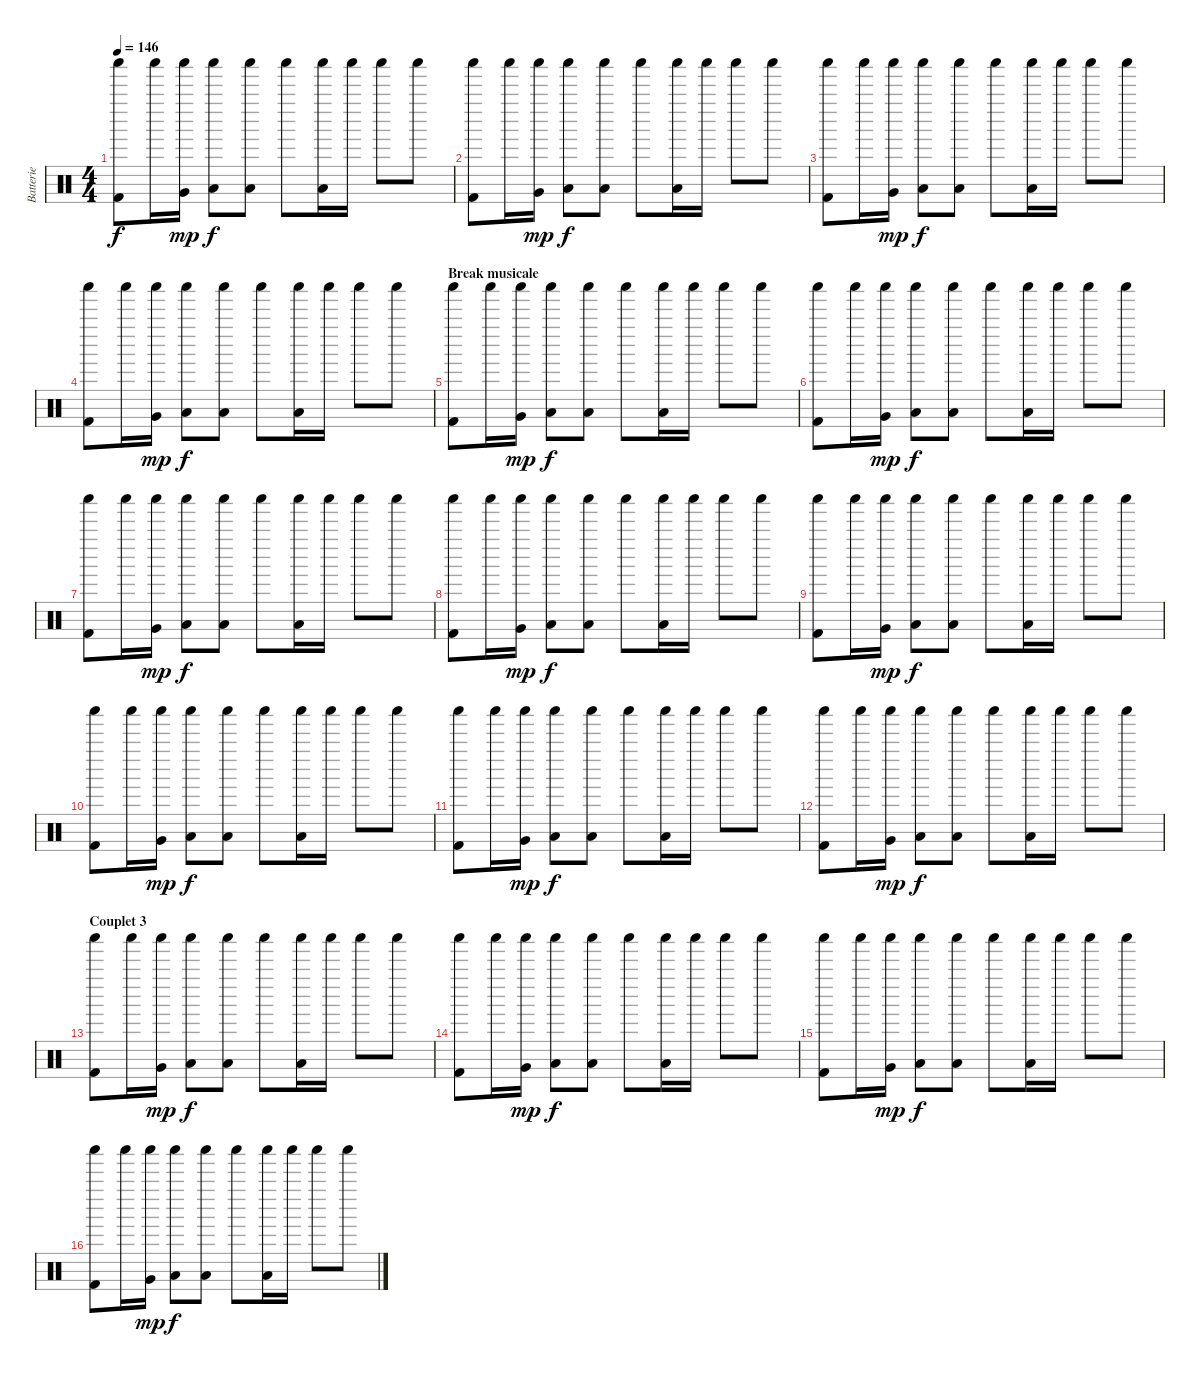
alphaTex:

\track ("Batterie" "Batterie") {instrument percussion}
\staff {score}
\articulation defaults
\ts (4 4)
\tempo 146
\clef neutral
\ks c
("Shaker (hit)" "Kick (hit) 2").8{dy f} "Shaker (hit)".16 ("Shaker (hit)" "Very Low Tom (hit)").16{dy mp} ("Shaker (hit)" "Low Tom (hit)").8{dy f} ("Shaker (hit)" "Low Tom (hit)").8 "Shaker (hit)".8 ("Shaker (hit)" "Low Tom (hit)").16 "Shaker (hit)".16 "Shaker (hit)".8 "Shaker (hit)".8 |
("Shaker (hit)" "Kick (hit) 2").8 "Shaker (hit)".16 ("Shaker (hit)" "Very Low Tom (hit)").16{dy mp} ("Shaker (hit)" "Low Tom (hit)").8{dy f} ("Shaker (hit)" "Low Tom (hit)").8 "Shaker (hit)".8 ("Shaker (hit)" "Low Tom (hit)").16 "Shaker (hit)".16 "Shaker (hit)".8 "Shaker (hit)".8 |
("Shaker (hit)" "Kick (hit) 2").8 "Shaker (hit)".16 ("Shaker (hit)" "Very Low Tom (hit)").16{dy mp} ("Shaker (hit)" "Low Tom (hit)").8{dy f} ("Shaker (hit)" "Low Tom (hit)").8 "Shaker (hit)".8 ("Shaker (hit)" "Low Tom (hit)").16 "Shaker (hit)".16 "Shaker (hit)".8 "Shaker (hit)".8 |
("Shaker (hit)" "Kick (hit) 2").8 "Shaker (hit)".16 ("Shaker (hit)" "Very Low Tom (hit)").16{dy mp} ("Shaker (hit)" "Low Tom (hit)").8{dy f} ("Shaker (hit)" "Low Tom (hit)").8 "Shaker (hit)".8 ("Shaker (hit)" "Low Tom (hit)").16 "Shaker (hit)".16 "Shaker (hit)".8 "Shaker (hit)".8 |
\section ("" "Break musicale")
("Shaker (hit)" "Kick (hit) 2").8 "Shaker (hit)".16 ("Shaker (hit)" "Very Low Tom (hit)").16{dy mp} ("Shaker (hit)" "Low Tom (hit)").8{dy f} ("Shaker (hit)" "Low Tom (hit)").8 "Shaker (hit)".8 ("Shaker (hit)" "Low Tom (hit)").16 "Shaker (hit)".16 "Shaker (hit)".8 "Shaker (hit)".8 |
("Shaker (hit)" "Kick (hit) 2").8 "Shaker (hit)".16 ("Shaker (hit)" "Very Low Tom (hit)").16{dy mp} ("Shaker (hit)" "Low Tom (hit)").8{dy f} ("Shaker (hit)" "Low Tom (hit)").8 "Shaker (hit)".8 ("Shaker (hit)" "Low Tom (hit)").16 "Shaker (hit)".16 "Shaker (hit)".8 "Shaker (hit)".8 |
("Shaker (hit)" "Kick (hit) 2").8 "Shaker (hit)".16 ("Shaker (hit)" "Very Low Tom (hit)").16{dy mp} ("Shaker (hit)" "Low Tom (hit)").8{dy f} ("Shaker (hit)" "Low Tom (hit)").8 "Shaker (hit)".8 ("Shaker (hit)" "Low Tom (hit)").16 "Shaker (hit)".16 "Shaker (hit)".8 "Shaker (hit)".8 |
("Shaker (hit)" "Kick (hit) 2").8 "Shaker (hit)".16 ("Shaker (hit)" "Very Low Tom (hit)").16{dy mp} ("Shaker (hit)" "Low Tom (hit)").8{dy f} ("Shaker (hit)" "Low Tom (hit)").8 "Shaker (hit)".8 ("Shaker (hit)" "Low Tom (hit)").16 "Shaker (hit)".16 "Shaker (hit)".8 "Shaker (hit)".8 |
("Shaker (hit)" "Kick (hit) 2").8 "Shaker (hit)".16 ("Shaker (hit)" "Very Low Tom (hit)").16{dy mp} ("Shaker (hit)" "Low Tom (hit)").8{dy f} ("Shaker (hit)" "Low Tom (hit)").8 "Shaker (hit)".8 ("Shaker (hit)" "Low Tom (hit)").16 "Shaker (hit)".16 "Shaker (hit)".8 "Shaker (hit)".8 |
("Shaker (hit)" "Kick (hit) 2").8 "Shaker (hit)".16 ("Shaker (hit)" "Very Low Tom (hit)").16{dy mp} ("Shaker (hit)" "Low Tom (hit)").8{dy f} ("Shaker (hit)" "Low Tom (hit)").8 "Shaker (hit)".8 ("Shaker (hit)" "Low Tom (hit)").16 "Shaker (hit)".16 "Shaker (hit)".8 "Shaker (hit)".8 |
("Shaker (hit)" "Kick (hit) 2").8 "Shaker (hit)".16 ("Shaker (hit)" "Very Low Tom (hit)").16{dy mp} ("Shaker (hit)" "Low Tom (hit)").8{dy f} ("Shaker (hit)" "Low Tom (hit)").8 "Shaker (hit)".8 ("Shaker (hit)" "Low Tom (hit)").16 "Shaker (hit)".16 "Shaker (hit)".8 "Shaker (hit)".8 |
("Shaker (hit)" "Kick (hit) 2").8 "Shaker (hit)".16 ("Shaker (hit)" "Very Low Tom (hit)").16{dy mp} ("Shaker (hit)" "Low Tom (hit)").8{dy f} ("Shaker (hit)" "Low Tom (hit)").8 "Shaker (hit)".8 ("Shaker (hit)" "Low Tom (hit)").16 "Shaker (hit)".16 "Shaker (hit)".8 "Shaker (hit)".8 |
\section ("" "Couplet 3")
("Shaker (hit)" "Kick (hit) 2").8 "Shaker (hit)".16 ("Shaker (hit)" "Very Low Tom (hit)").16{dy mp} ("Shaker (hit)" "Low Tom (hit)").8{dy f} ("Shaker (hit)" "Low Tom (hit)").8 "Shaker (hit)".8 ("Shaker (hit)" "Low Tom (hit)").16 "Shaker (hit)".16 "Shaker (hit)".8 "Shaker (hit)".8 |
("Shaker (hit)" "Kick (hit) 2").8 "Shaker (hit)".16 ("Shaker (hit)" "Very Low Tom (hit)").16{dy mp} ("Shaker (hit)" "Low Tom (hit)").8{dy f} ("Shaker (hit)" "Low Tom (hit)").8 "Shaker (hit)".8 ("Shaker (hit)" "Low Tom (hit)").16 "Shaker (hit)".16 "Shaker (hit)".8 "Shaker (hit)".8 |
("Shaker (hit)" "Kick (hit) 2").8 "Shaker (hit)".16 ("Shaker (hit)" "Very Low Tom (hit)").16{dy mp} ("Shaker (hit)" "Low Tom (hit)").8{dy f} ("Shaker (hit)" "Low Tom (hit)").8 "Shaker (hit)".8 ("Shaker (hit)" "Low Tom (hit)").16 "Shaker (hit)".16 "Shaker (hit)".8 "Shaker (hit)".8 |
("Shaker (hit)" "Kick (hit) 2").8 "Shaker (hit)".16 ("Shaker (hit)" "Very Low Tom (hit)").16{dy mp} ("Shaker (hit)" "Low Tom (hit)").8{dy f} ("Shaker (hit)" "Low Tom (hit)").8 "Shaker (hit)".8 ("Shaker (hit)" "Low Tom (hit)").16 "Shaker (hit)".16 "Shaker (hit)".8 "Shaker (hit)".8
